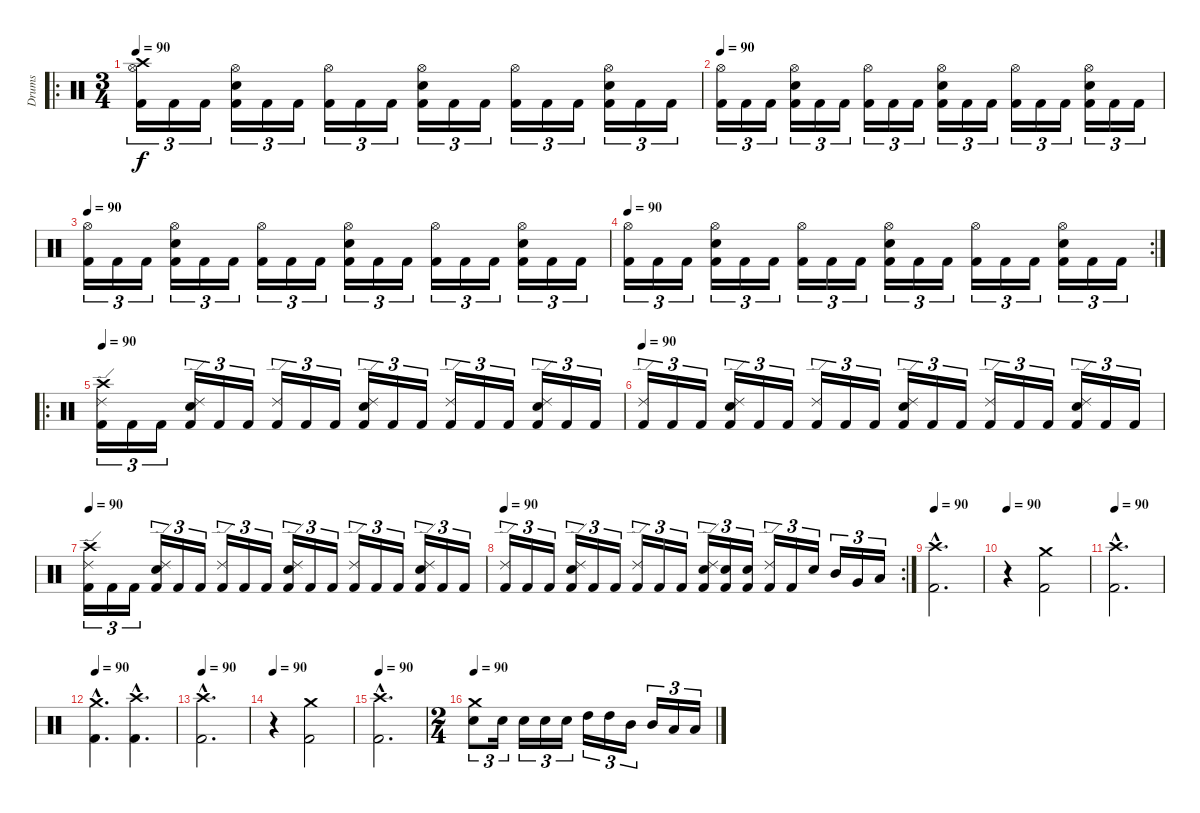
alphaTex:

\track ("Drums" "Drums") {instrument percussion}
\staff {score}
\articulation defaults
\ro
\ts (3 4)
\tempo 90
\clef neutral
\ks c
("Crash high (hit)" "Hi-Hat (open)" "Kick (hit) 2").16{tu (3 2) dy f volume 13} "Kick (hit) 2".16{tu (3 2)} "Kick (hit) 2".16{tu (3 2)} ("Hi-Hat (open)" "Electric Snare (hit)" "Kick (hit) 2").16{tu (3 2)} "Kick (hit) 2".16{tu (3 2)} "Kick (hit) 2".16{tu (3 2)} ("Hi-Hat (open)" "Kick (hit) 2").16{tu (3 2)} "Kick (hit) 2".16{tu (3 2)} "Kick (hit) 2".16{tu (3 2)} ("Hi-Hat (open)" "Electric Snare (hit)" "Kick (hit) 2").16{tu (3 2)} "Kick (hit) 2".16{tu (3 2)} "Kick (hit) 2".16{tu (3 2)} ("Hi-Hat (open)" "Kick (hit) 2").16{tu (3 2)} "Kick (hit) 2".16{tu (3 2)} "Kick (hit) 2".16{tu (3 2)} ("Hi-Hat (open)" "Electric Snare (hit)" "Kick (hit) 2").16{tu (3 2)} "Kick (hit) 2".16{tu (3 2)} "Kick (hit) 2".16{tu (3 2)} |
\tempo 90
("Hi-Hat (open)" "Kick (hit) 2").16{tu (3 2)} "Kick (hit) 2".16{tu (3 2)} "Kick (hit) 2".16{tu (3 2)} ("Hi-Hat (open)" "Electric Snare (hit)" "Kick (hit) 2").16{tu (3 2)} "Kick (hit) 2".16{tu (3 2)} "Kick (hit) 2".16{tu (3 2)} ("Hi-Hat (open)" "Kick (hit) 2").16{tu (3 2)} "Kick (hit) 2".16{tu (3 2)} "Kick (hit) 2".16{tu (3 2)} ("Hi-Hat (open)" "Electric Snare (hit)" "Kick (hit) 2").16{tu (3 2)} "Kick (hit) 2".16{tu (3 2)} "Kick (hit) 2".16{tu (3 2)} ("Hi-Hat (open)" "Kick (hit) 2").16{tu (3 2)} "Kick (hit) 2".16{tu (3 2)} "Kick (hit) 2".16{tu (3 2)} ("Hi-Hat (open)" "Electric Snare (hit)" "Kick (hit) 2").16{tu (3 2)} "Kick (hit) 2".16{tu (3 2)} "Kick (hit) 2".16{tu (3 2)} |
\tempo 90
("Hi-Hat (open)" "Kick (hit) 2").16{tu (3 2)} "Kick (hit) 2".16{tu (3 2)} "Kick (hit) 2".16{tu (3 2)} ("Hi-Hat (open)" "Electric Snare (hit)" "Kick (hit) 2").16{tu (3 2)} "Kick (hit) 2".16{tu (3 2)} "Kick (hit) 2".16{tu (3 2)} ("Hi-Hat (open)" "Kick (hit) 2").16{tu (3 2)} "Kick (hit) 2".16{tu (3 2)} "Kick (hit) 2".16{tu (3 2)} ("Hi-Hat (open)" "Electric Snare (hit)" "Kick (hit) 2").16{tu (3 2)} "Kick (hit) 2".16{tu (3 2)} "Kick (hit) 2".16{tu (3 2)} ("Hi-Hat (open)" "Kick (hit) 2").16{tu (3 2)} "Kick (hit) 2".16{tu (3 2)} "Kick (hit) 2".16{tu (3 2)} ("Hi-Hat (open)" "Electric Snare (hit)" "Kick (hit) 2").16{tu (3 2)} "Kick (hit) 2".16{tu (3 2)} "Kick (hit) 2".16{tu (3 2)} |
\rc 2
\tempo 90
("Hi-Hat (open)" "Kick (hit) 2").16{tu (3 2)} "Kick (hit) 2".16{tu (3 2)} "Kick (hit) 2".16{tu (3 2)} ("Hi-Hat (open)" "Electric Snare (hit)" "Kick (hit) 2").16{tu (3 2)} "Kick (hit) 2".16{tu (3 2)} "Kick (hit) 2".16{tu (3 2)} ("Hi-Hat (open)" "Kick (hit) 2").16{tu (3 2)} "Kick (hit) 2".16{tu (3 2)} "Kick (hit) 2".16{tu (3 2)} ("Hi-Hat (open)" "Electric Snare (hit)" "Kick (hit) 2").16{tu (3 2)} "Kick (hit) 2".16{tu (3 2)} "Kick (hit) 2".16{tu (3 2)} ("Hi-Hat (open)" "Kick (hit) 2").16{tu (3 2)} "Kick (hit) 2".16{tu (3 2)} "Kick (hit) 2".16{tu (3 2)} ("Hi-Hat (open)" "Electric Snare (hit)" "Kick (hit) 2").16{tu (3 2)} "Kick (hit) 2".16{tu (3 2)} "Kick (hit) 2".16{tu (3 2)} |
\ro
\tempo 90
("Crash high (hit)" "Ride (edge) 2" "Kick (hit) 2").16{tu (3 2) volume 13} "Kick (hit) 2".16{tu (3 2)} "Kick (hit) 2".16{tu (3 2)} ("Ride (edge) 2" "Electric Snare (hit)" "Kick (hit) 2").16{tu (3 2)} "Kick (hit) 2".16{tu (3 2)} "Kick (hit) 2".16{tu (3 2)} ("Ride (edge) 2" "Kick (hit) 2").16{tu (3 2)} "Kick (hit) 2".16{tu (3 2)} "Kick (hit) 2".16{tu (3 2)} ("Ride (edge) 2" "Electric Snare (hit)" "Kick (hit) 2").16{tu (3 2)} "Kick (hit) 2".16{tu (3 2)} "Kick (hit) 2".16{tu (3 2)} ("Ride (edge) 2" "Kick (hit) 2").16{tu (3 2)} "Kick (hit) 2".16{tu (3 2)} "Kick (hit) 2".16{tu (3 2)} ("Ride (edge) 2" "Electric Snare (hit)" "Kick (hit) 2").16{tu (3 2)} "Kick (hit) 2".16{tu (3 2)} "Kick (hit) 2".16{tu (3 2)} |
\tempo 90
("Ride (edge) 2" "Kick (hit) 2").16{tu (3 2)} "Kick (hit) 2".16{tu (3 2)} "Kick (hit) 2".16{tu (3 2)} ("Ride (edge) 2" "Electric Snare (hit)" "Kick (hit) 2").16{tu (3 2)} "Kick (hit) 2".16{tu (3 2)} "Kick (hit) 2".16{tu (3 2)} ("Ride (edge) 2" "Kick (hit) 2").16{tu (3 2)} "Kick (hit) 2".16{tu (3 2)} "Kick (hit) 2".16{tu (3 2)} ("Ride (edge) 2" "Electric Snare (hit)" "Kick (hit) 2").16{tu (3 2)} "Kick (hit) 2".16{tu (3 2)} "Kick (hit) 2".16{tu (3 2)} ("Ride (edge) 2" "Kick (hit) 2").16{tu (3 2)} "Kick (hit) 2".16{tu (3 2)} "Kick (hit) 2".16{tu (3 2)} ("Ride (edge) 2" "Electric Snare (hit)" "Kick (hit) 2").16{tu (3 2)} "Kick (hit) 2".16{tu (3 2)} "Kick (hit) 2".16{tu (3 2)} |
\tempo 90
("Crash high (hit)" "Ride (edge) 2" "Kick (hit) 2").16{tu (3 2)} "Kick (hit) 2".16{tu (3 2)} "Kick (hit) 2".16{tu (3 2)} ("Ride (edge) 2" "Electric Snare (hit)" "Kick (hit) 2").16{tu (3 2)} "Kick (hit) 2".16{tu (3 2)} "Kick (hit) 2".16{tu (3 2)} ("Ride (edge) 2" "Kick (hit) 2").16{tu (3 2)} "Kick (hit) 2".16{tu (3 2)} "Kick (hit) 2".16{tu (3 2)} ("Ride (edge) 2" "Electric Snare (hit)" "Kick (hit) 2").16{tu (3 2)} "Kick (hit) 2".16{tu (3 2)} "Kick (hit) 2".16{tu (3 2)} ("Ride (edge) 2" "Kick (hit) 2").16{tu (3 2)} "Kick (hit) 2".16{tu (3 2)} "Kick (hit) 2".16{tu (3 2)} ("Ride (edge) 2" "Electric Snare (hit)" "Kick (hit) 2").16{tu (3 2)} "Kick (hit) 2".16{tu (3 2)} "Kick (hit) 2".16{tu (3 2)} |
\rc 2
\tempo 90
("Ride (edge) 2" "Kick (hit) 2").16{tu (3 2)} "Kick (hit) 2".16{tu (3 2)} "Kick (hit) 2".16{tu (3 2)} ("Ride (edge) 2" "Electric Snare (hit)" "Kick (hit) 2").16{tu (3 2)} "Kick (hit) 2".16{tu (3 2)} "Kick (hit) 2".16{tu (3 2)} ("Ride (edge) 2" "Kick (hit) 2").16{tu (3 2)} "Kick (hit) 2".16{tu (3 2)} "Kick (hit) 2".16{tu (3 2)} ("Ride (edge) 2" "Electric Snare (hit)" "Kick (hit) 2").16{tu (3 2)} ("Electric Snare (hit)" "Kick (hit) 2").16{tu (3 2)} ("Electric Snare (hit)" "Kick (hit) 2").16{tu (3 2)} ("Ride (edge) 2" "Kick (hit) 2").16{tu (3 2)} "Kick (hit) 2".16{tu (3 2)} "Electric Snare (hit)".16{tu (3 2)} "Mid Tom (hit)".16{tu (3 2)} "Very Low Tom (hit)".16{tu (3 2)} "Low Tom (hit)".16{tu (3 2)} |
\tempo 90
("Crash high (hit)"{hac} "Kick (hit) 2"{hac}).2{d} |
\tempo 90
r.4 ("Crash medium (hit)" "Kick (hit) 2").2 |
\tempo 90
("Crash high (hit)"{hac} "Kick (hit) 2"{hac}).2{d} |
\tempo 90
("Crash medium (hit)"{hac} "Kick (hit) 2"{hac}).4{d} ("Crash high (hit)"{hac} "Kick (hit) 2"{hac}).4{d} |
\tempo 90
("Crash high (hit)"{hac} "Kick (hit) 2"{hac}).2{d} |
\tempo 90
r.4 ("Crash medium (hit)" "Kick (hit) 2").2 |
\tempo 90
("Crash high (hit)"{hac} "Kick (hit) 2"{hac}).2{d} |
\ts (2 4)
\tempo 90
("Crash medium (hit)" "Electric Snare (hit)").8{tu (3 2)} "Electric Snare (hit)".16{tu (3 2)} "Electric Snare (hit)".16{tu (3 2)} "Electric Snare (hit)".16{tu (3 2)} "Electric Snare (hit)".16{tu (3 2)} "High Tom (hit)".16{tu (3 2)} "High Tom (hit)".16{tu (3 2)} "Mid Tom (hit)".16{tu (3 2)} "Mid Tom (hit)".16{tu (3 2)} "Low Tom (hit)".16{tu (3 2)} "Low Tom (hit)".16{tu (3 2)}
